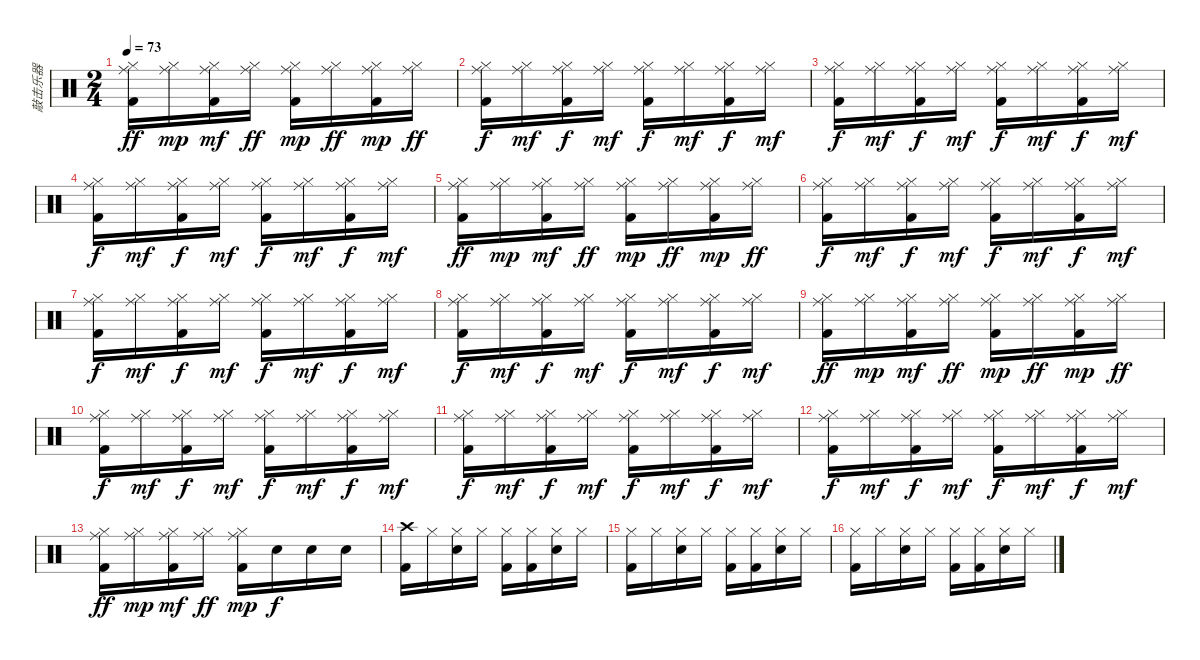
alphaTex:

\track ("敲击乐器" "敲击乐器") {instrument percussion}
\staff {score}
\articulation defaults
\ts (2 4)
\tempo 73
\clef neutral
\ks c
("Hi-Hat (closed)" "Kick (hit) 2" "Ride (middle)").16{dy ff} ("Hi-Hat (closed)" "Ride (middle)").16{dy mp} ("Hi-Hat (closed)" "Kick (hit) 2" "Ride (middle)").16{dy mf} ("Hi-Hat (closed)" "Ride (middle)").16{dy ff} ("Hi-Hat (closed)" "Kick (hit) 2" "Ride (middle)").16{dy mp} ("Hi-Hat (closed)" "Ride (middle)").16{dy ff} ("Hi-Hat (closed)" "Kick (hit) 2" "Ride (middle)").16{dy mp} ("Hi-Hat (closed)" "Ride (middle)").16{dy ff} |
("Hi-Hat (closed)" "Kick (hit) 2" "Ride (middle)").16{dy f} ("Hi-Hat (closed)" "Ride (middle)").16{dy mf} ("Hi-Hat (closed)" "Kick (hit) 2" "Ride (middle)").16{dy f} ("Hi-Hat (closed)" "Ride (middle)").16{dy mf} ("Hi-Hat (closed)" "Kick (hit) 2" "Ride (middle)").16{dy f} ("Hi-Hat (closed)" "Ride (middle)").16{dy mf} ("Hi-Hat (closed)" "Kick (hit) 2" "Ride (middle)").16{dy f} ("Hi-Hat (closed)" "Ride (middle)").16{dy mf} |
("Hi-Hat (closed)" "Kick (hit) 2" "Ride (middle)").16{dy f} ("Hi-Hat (closed)" "Ride (middle)").16{dy mf} ("Hi-Hat (closed)" "Kick (hit) 2" "Ride (middle)").16{dy f} ("Hi-Hat (closed)" "Ride (middle)").16{dy mf} ("Hi-Hat (closed)" "Kick (hit) 2" "Ride (middle)").16{dy f} ("Hi-Hat (closed)" "Ride (middle)").16{dy mf} ("Hi-Hat (closed)" "Kick (hit) 2" "Ride (middle)").16{dy f} ("Hi-Hat (closed)" "Ride (middle)").16{dy mf} |
("Hi-Hat (closed)" "Kick (hit) 2" "Ride (middle)").16{dy f} ("Hi-Hat (closed)" "Ride (middle)").16{dy mf} ("Hi-Hat (closed)" "Kick (hit) 2" "Ride (middle)").16{dy f} ("Hi-Hat (closed)" "Ride (middle)").16{dy mf} ("Hi-Hat (closed)" "Kick (hit) 2" "Ride (middle)").16{dy f} ("Hi-Hat (closed)" "Ride (middle)").16{dy mf} ("Hi-Hat (closed)" "Kick (hit) 2" "Ride (middle)").16{dy f} ("Hi-Hat (closed)" "Ride (middle)").16{dy mf} |
("Hi-Hat (closed)" "Kick (hit) 2" "Ride (middle)").16{dy ff} ("Hi-Hat (closed)" "Ride (middle)").16{dy mp} ("Hi-Hat (closed)" "Kick (hit) 2" "Ride (middle)").16{dy mf} ("Hi-Hat (closed)" "Ride (middle)").16{dy ff} ("Hi-Hat (closed)" "Kick (hit) 2" "Ride (middle)").16{dy mp} ("Hi-Hat (closed)" "Ride (middle)").16{dy ff} ("Hi-Hat (closed)" "Kick (hit) 2" "Ride (middle)").16{dy mp} ("Hi-Hat (closed)" "Ride (middle)").16{dy ff} |
("Hi-Hat (closed)" "Kick (hit) 2" "Ride (middle)").16{dy f} ("Hi-Hat (closed)" "Ride (middle)").16{dy mf} ("Hi-Hat (closed)" "Kick (hit) 2" "Ride (middle)").16{dy f} ("Hi-Hat (closed)" "Ride (middle)").16{dy mf} ("Hi-Hat (closed)" "Kick (hit) 2" "Ride (middle)").16{dy f} ("Hi-Hat (closed)" "Ride (middle)").16{dy mf} ("Hi-Hat (closed)" "Kick (hit) 2" "Ride (middle)").16{dy f} ("Hi-Hat (closed)" "Ride (middle)").16{dy mf} |
("Hi-Hat (closed)" "Kick (hit) 2" "Ride (middle)").16{dy f} ("Hi-Hat (closed)" "Ride (middle)").16{dy mf} ("Hi-Hat (closed)" "Kick (hit) 2" "Ride (middle)").16{dy f} ("Hi-Hat (closed)" "Ride (middle)").16{dy mf} ("Hi-Hat (closed)" "Kick (hit) 2" "Ride (middle)").16{dy f} ("Hi-Hat (closed)" "Ride (middle)").16{dy mf} ("Hi-Hat (closed)" "Kick (hit) 2" "Ride (middle)").16{dy f} ("Hi-Hat (closed)" "Ride (middle)").16{dy mf} |
("Hi-Hat (closed)" "Kick (hit) 2" "Ride (middle)").16{dy f} ("Hi-Hat (closed)" "Ride (middle)").16{dy mf} ("Hi-Hat (closed)" "Kick (hit) 2" "Ride (middle)").16{dy f} ("Hi-Hat (closed)" "Ride (middle)").16{dy mf} ("Hi-Hat (closed)" "Kick (hit) 2" "Ride (middle)").16{dy f} ("Hi-Hat (closed)" "Ride (middle)").16{dy mf} ("Hi-Hat (closed)" "Kick (hit) 2" "Ride (middle)").16{dy f} ("Hi-Hat (closed)" "Ride (middle)").16{dy mf} |
("Hi-Hat (closed)" "Kick (hit) 2" "Ride (middle)").16{dy ff} ("Hi-Hat (closed)" "Ride (middle)").16{dy mp} ("Hi-Hat (closed)" "Kick (hit) 2" "Ride (middle)").16{dy mf} ("Hi-Hat (closed)" "Ride (middle)").16{dy ff} ("Hi-Hat (closed)" "Kick (hit) 2" "Ride (middle)").16{dy mp} ("Hi-Hat (closed)" "Ride (middle)").16{dy ff} ("Hi-Hat (closed)" "Kick (hit) 2" "Ride (middle)").16{dy mp} ("Hi-Hat (closed)" "Ride (middle)").16{dy ff} |
("Hi-Hat (closed)" "Kick (hit) 2" "Ride (middle)").16{dy f} ("Hi-Hat (closed)" "Ride (middle)").16{dy mf} ("Hi-Hat (closed)" "Kick (hit) 2" "Ride (middle)").16{dy f} ("Hi-Hat (closed)" "Ride (middle)").16{dy mf} ("Hi-Hat (closed)" "Kick (hit) 2" "Ride (middle)").16{dy f} ("Hi-Hat (closed)" "Ride (middle)").16{dy mf} ("Hi-Hat (closed)" "Kick (hit) 2" "Ride (middle)").16{dy f} ("Hi-Hat (closed)" "Ride (middle)").16{dy mf} |
("Hi-Hat (closed)" "Kick (hit) 2" "Ride (middle)").16{dy f} ("Hi-Hat (closed)" "Ride (middle)").16{dy mf} ("Hi-Hat (closed)" "Kick (hit) 2" "Ride (middle)").16{dy f} ("Hi-Hat (closed)" "Ride (middle)").16{dy mf} ("Hi-Hat (closed)" "Kick (hit) 2" "Ride (middle)").16{dy f} ("Hi-Hat (closed)" "Ride (middle)").16{dy mf} ("Hi-Hat (closed)" "Kick (hit) 2" "Ride (middle)").16{dy f} ("Hi-Hat (closed)" "Ride (middle)").16{dy mf} |
("Hi-Hat (closed)" "Kick (hit) 2" "Ride (middle)").16{dy f} ("Hi-Hat (closed)" "Ride (middle)").16{dy mf} ("Hi-Hat (closed)" "Kick (hit) 2" "Ride (middle)").16{dy f} ("Hi-Hat (closed)" "Ride (middle)").16{dy mf} ("Hi-Hat (closed)" "Kick (hit) 2" "Ride (middle)").16{dy f} ("Hi-Hat (closed)" "Ride (middle)").16{dy mf} ("Hi-Hat (closed)" "Kick (hit) 2" "Ride (middle)").16{dy f} ("Hi-Hat (closed)" "Ride (middle)").16{dy mf} |
("Hi-Hat (closed)" "Kick (hit) 2" "Ride (middle)").16{dy ff} ("Hi-Hat (closed)" "Ride (middle)").16{dy mp} ("Hi-Hat (closed)" "Kick (hit) 2" "Ride (middle)").16{dy mf} ("Hi-Hat (closed)" "Ride (middle)").16{dy ff} ("Hi-Hat (closed)" "Kick (hit) 2" "Ride (middle)").16{dy mp} "Electric Snare (hit)".16{dy f} "Electric Snare (hit)".16 "Electric Snare (hit)".16 |
("Crash high (hit)" "Kick (hit) 2").16 "Hi-Hat (closed)".16 ("Hi-Hat (closed)" "Electric Snare (hit)").16 "Hi-Hat (closed)".16 ("Hi-Hat (closed)" "Kick (hit) 2").16 ("Hi-Hat (closed)" "Kick (hit) 2").16 ("Hi-Hat (closed)" "Electric Snare (hit)").16 "Hi-Hat (closed)".16 |
("Hi-Hat (closed)" "Kick (hit) 2").16 "Hi-Hat (closed)".16 ("Hi-Hat (closed)" "Electric Snare (hit)").16 "Hi-Hat (closed)".16 ("Hi-Hat (closed)" "Kick (hit) 2").16 ("Hi-Hat (closed)" "Kick (hit) 2").16 ("Hi-Hat (closed)" "Electric Snare (hit)").16 "Hi-Hat (closed)".16 |
("Hi-Hat (closed)" "Kick (hit) 2").16 "Hi-Hat (closed)".16 ("Hi-Hat (closed)" "Electric Snare (hit)").16 "Hi-Hat (closed)".16 ("Hi-Hat (closed)" "Kick (hit) 2").16 ("Hi-Hat (closed)" "Kick (hit) 2").16 ("Hi-Hat (closed)" "Electric Snare (hit)").16 "Hi-Hat (closed)".16
